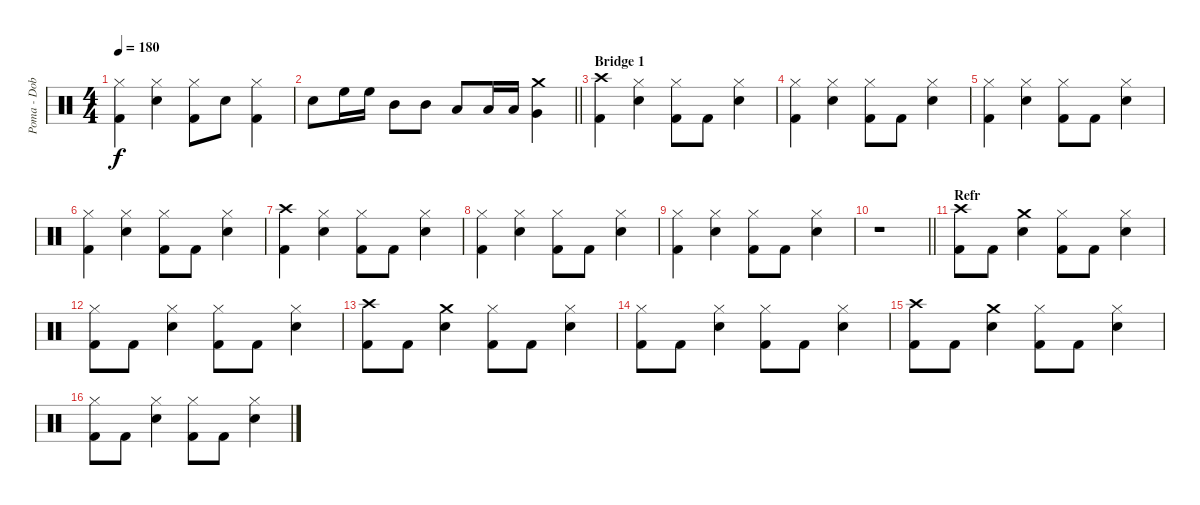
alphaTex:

\track ("Poma - Dob" "Poma - Dob") {instrument percussion}
\staff {score}
\articulation defaults
\ts (4 4)
\tempo 180
\clef neutral
\ks c
("Hi-Hat (closed)" "Kick (hit) 2").4{dy f} ("Hi-Hat (closed)" "Electric Snare (hit)").4 ("Hi-Hat (closed)" "Kick (hit) 2").8 "Electric Snare (hit)".8 ("Hi-Hat (closed)" "Kick (hit) 2").4 |
\barLineRight lightlight "Electric Snare (hit)".8 "High Floor Tom (hit)".16 "High Floor Tom (hit)".16 "Mid Tom (hit)".8 "Mid Tom (hit)".8 "Low Tom (hit)".8 "Low Tom (hit)".16 "Low Tom (hit)".16
("Crash medium (hit)" "Very Low Tom (hit)").4 |
\section ("" "Bridge 1")
("Crash high (hit)" "Kick (hit) 2").4 ("Hi-Hat (closed)" "Electric Snare (hit)").4 ("Hi-Hat (closed)" "Kick (hit) 2").8 "Kick (hit) 2".8 ("Hi-Hat (closed)" "Electric Snare (hit)").4 |
("Hi-Hat (closed)" "Kick (hit) 2").4 ("Hi-Hat (closed)" "Electric Snare (hit)").4 ("Hi-Hat (closed)" "Kick (hit) 2").8 "Kick (hit) 2".8 ("Hi-Hat (closed)" "Electric Snare (hit)").4 |
("Hi-Hat (closed)" "Kick (hit) 2").4 ("Hi-Hat (closed)" "Electric Snare (hit)").4 ("Hi-Hat (closed)" "Kick (hit) 2").8 "Kick (hit) 2".8 ("Hi-Hat (closed)" "Electric Snare (hit)").4 |
("Hi-Hat (closed)" "Kick (hit) 2").4 ("Hi-Hat (closed)" "Electric Snare (hit)").4 ("Hi-Hat (closed)" "Kick (hit) 2").8 "Kick (hit) 2".8 ("Hi-Hat (closed)" "Electric Snare (hit)").4 |
("Crash high (hit)" "Kick (hit) 2").4 ("Hi-Hat (closed)" "Electric Snare (hit)").4 ("Hi-Hat (closed)" "Kick (hit) 2").8 "Kick (hit) 2".8 ("Hi-Hat (closed)" "Electric Snare (hit)").4 |
("Hi-Hat (closed)" "Kick (hit) 2").4 ("Hi-Hat (closed)" "Electric Snare (hit)").4 ("Hi-Hat (closed)" "Kick (hit) 2").8 "Kick (hit) 2".8 ("Hi-Hat (closed)" "Electric Snare (hit)").4 |
("Hi-Hat (closed)" "Kick (hit) 2").4 ("Hi-Hat (closed)" "Electric Snare (hit)").4 ("Hi-Hat (closed)" "Kick (hit) 2").8 "Kick (hit) 2".8 ("Hi-Hat (closed)" "Electric Snare (hit)").4 |
\barLineRight lightlight
r.1 |
\section ("" "Refr")
("Crash high (hit)" "Kick (hit) 2").8 "Kick (hit) 2".8 ("Crash medium (hit)" "Electric Snare (hit)").4 ("Hi-Hat (closed)" "Kick (hit) 2").8 "Kick (hit) 2".8 ("Hi-Hat (closed)" "Electric Snare (hit)").4 |
("Hi-Hat (closed)" "Kick (hit) 2").8 "Kick (hit) 2".8 ("Hi-Hat (closed)" "Electric Snare (hit)").4 ("Hi-Hat (closed)" "Kick (hit) 2").8 "Kick (hit) 2".8 ("Hi-Hat (closed)" "Electric Snare (hit)").4 |
("Crash high (hit)" "Kick (hit) 2").8 "Kick (hit) 2".8 ("Crash medium (hit)" "Electric Snare (hit)").4 ("Hi-Hat (closed)" "Kick (hit) 2").8 "Kick (hit) 2".8 ("Hi-Hat (closed)" "Electric Snare (hit)").4 |
("Hi-Hat (closed)" "Kick (hit) 2").8 "Kick (hit) 2".8 ("Hi-Hat (closed)" "Electric Snare (hit)").4 ("Hi-Hat (closed)" "Kick (hit) 2").8 "Kick (hit) 2".8 ("Hi-Hat (closed)" "Electric Snare (hit)").4 |
("Crash high (hit)" "Kick (hit) 2").8 "Kick (hit) 2".8 ("Crash medium (hit)" "Electric Snare (hit)").4 ("Hi-Hat (closed)" "Kick (hit) 2").8 "Kick (hit) 2".8 ("Hi-Hat (closed)" "Electric Snare (hit)").4 |
("Hi-Hat (closed)" "Kick (hit) 2").8 "Kick (hit) 2".8 ("Hi-Hat (closed)" "Electric Snare (hit)").4 ("Hi-Hat (closed)" "Kick (hit) 2").8 "Kick (hit) 2".8 ("Hi-Hat (closed)" "Electric Snare (hit)").4
